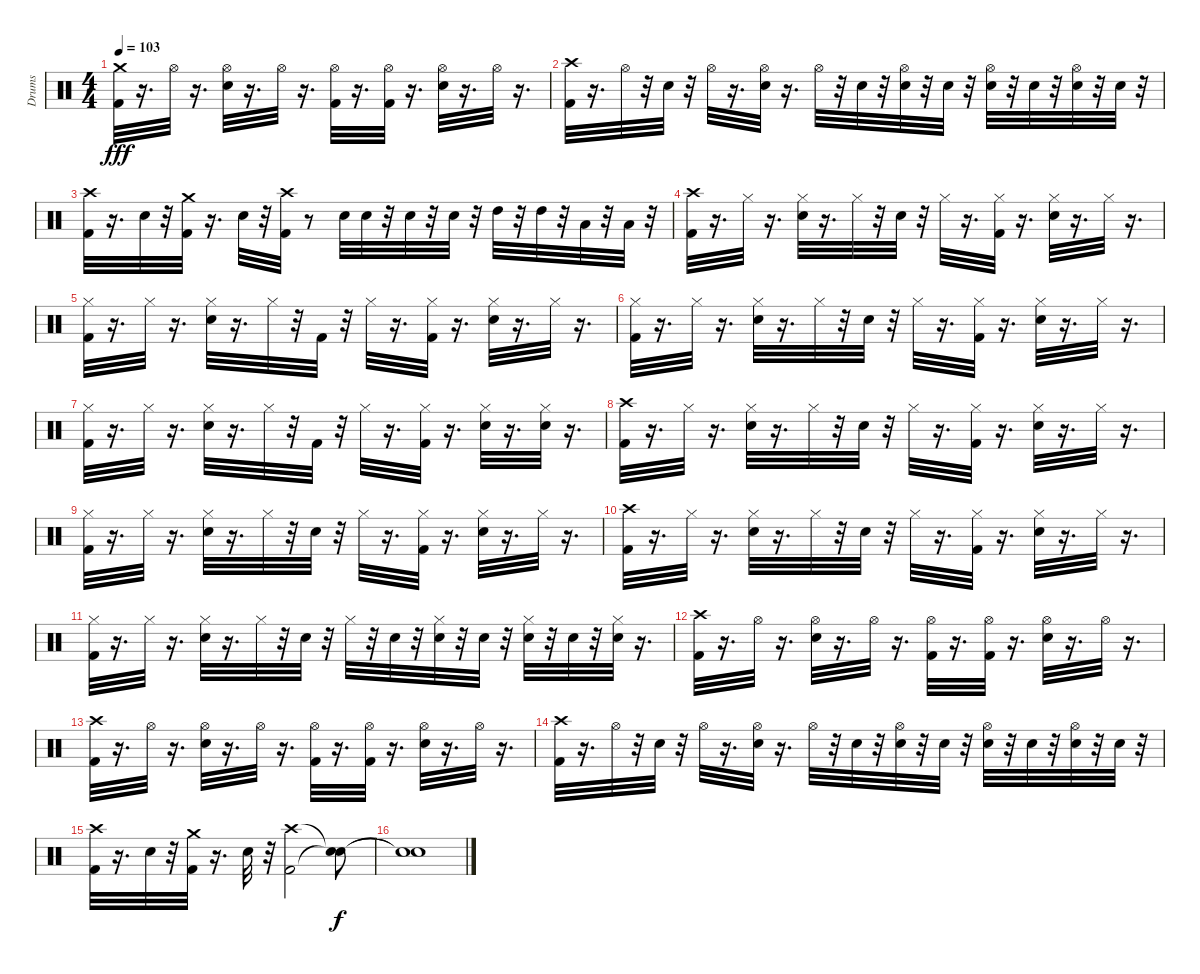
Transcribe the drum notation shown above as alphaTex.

\track ("Drums" "Drums") {instrument percussion}
\staff {score}
\articulation defaults
\ts (4 4)
\tempo 103
\clef neutral
\ks c
("Kick (hit) 2" "Crash medium (hit)").32{dy fff} r.16{d} "Hi-Hat (open)".32 r.16{d} ("Electric Snare (hit)" "Hi-Hat (open)").32 r.16{d} "Hi-Hat (open)".32 r.16{d} ("Kick (hit) 2" "Hi-Hat (open)").32 r.16{d} ("Kick (hit) 2" "Hi-Hat (open)").32 r.16{d} ("Electric Snare (hit)" "Hi-Hat (open)").32 r.16{d} "Hi-Hat (open)".32 r.16{d} |
("Kick (hit) 2" "Crash high (hit)").32 r.16{d} "Hi-Hat (open)".32 r.32 "Electric Snare (hit)".32 r.32 "Hi-Hat (open)".32 r.16{d} ("Electric Snare (hit)" "Hi-Hat (open)").32 r.16{d} "Hi-Hat (open)".32 r.32 "Electric Snare (hit)".32 r.32 ("Electric Snare (hit)" "Hi-Hat (open)").32 r.32 "Electric Snare (hit)".32 r.32 ("Electric Snare (hit)" "Hi-Hat (open)").32 r.32 "Electric Snare (hit)".32 r.32 ("Electric Snare (hit)" "Hi-Hat (open)").32 r.32 "Electric Snare (hit)".32 r.32 |
("Kick (hit) 2" "Crash high (hit)").32 r.16{d} "Electric Snare (hit)".32 r.32 ("Kick (hit) 2" "Crash medium (hit)").32 r.16{d} "Electric Snare (hit)".32 r.32 ("Kick (hit) 2" "Crash high (hit)").32 r.8 "Electric Snare (hit)".32 "Electric Snare (hit)".32 r.32 "Electric Snare (hit)".32 r.32 "Electric Snare (hit)".32 r.32 "High Tom (hit)".32 r.32 "High Tom (hit)".32 r.32 "Low Tom (hit)".32 r.32 "Low Floor Tom (hit)".32 r.32 |
("Crash high (hit)" "Kick (hit) 2").32 r.16{d} "Hi-Hat (closed)".32 r.16{d} ("Hi-Hat (closed)" "Electric Snare (hit)").32 r.16{d} "Hi-Hat (closed)".32 r.32 "Electric Snare (hit)".32 r.32 "Hi-Hat (closed)".32 r.16{d} ("Hi-Hat (closed)" "Kick (hit) 2").32 r.16{d} ("Hi-Hat (closed)" "Electric Snare (hit)").32 r.16{d} "Hi-Hat (closed)".32 r.16{d} |
("Hi-Hat (closed)" "Kick (hit) 2").32 r.16{d} "Hi-Hat (closed)".32 r.16{d} ("Hi-Hat (closed)" "Electric Snare (hit)").32 r.16{d} "Hi-Hat (closed)".32 r.32 "Kick (hit) 2".32 r.32 "Hi-Hat (closed)".32 r.16{d} ("Hi-Hat (closed)" "Kick (hit) 2").32 r.16{d} ("Hi-Hat (closed)" "Electric Snare (hit)").32 r.16{d} "Hi-Hat (closed)".32 r.16{d} |
("Hi-Hat (closed)" "Kick (hit) 2").32 r.16{d} "Hi-Hat (closed)".32 r.16{d} ("Hi-Hat (closed)" "Electric Snare (hit)").32 r.16{d} "Hi-Hat (closed)".32 r.32 "Electric Snare (hit)".32 r.32 "Hi-Hat (closed)".32 r.16{d} ("Hi-Hat (closed)" "Kick (hit) 2").32 r.16{d} ("Hi-Hat (closed)" "Electric Snare (hit)").32 r.16{d} "Hi-Hat (closed)".32 r.16{d} |
("Hi-Hat (closed)" "Kick (hit) 2").32 r.16{d} "Hi-Hat (closed)".32 r.16{d} ("Hi-Hat (closed)" "Electric Snare (hit)").32 r.16{d} "Hi-Hat (closed)".32 r.32 "Kick (hit) 2".32 r.32 "Hi-Hat (closed)".32 r.16{d} ("Hi-Hat (closed)" "Kick (hit) 2").32 r.16{d} ("Hi-Hat (closed)" "Electric Snare (hit)").32 r.16{d} ("Hi-Hat (closed)" "Electric Snare (hit)").32 r.16{d} |
("Crash high (hit)" "Kick (hit) 2").32 r.16{d} "Hi-Hat (closed)".32 r.16{d} ("Hi-Hat (closed)" "Electric Snare (hit)").32 r.16{d} "Hi-Hat (closed)".32 r.32 "Electric Snare (hit)".32 r.32 "Hi-Hat (closed)".32 r.16{d} ("Hi-Hat (closed)" "Kick (hit) 2").32 r.16{d} ("Hi-Hat (closed)" "Electric Snare (hit)").32 r.16{d} "Hi-Hat (closed)".32 r.16{d} |
("Hi-Hat (closed)" "Kick (hit) 2").32 r.16{d} "Hi-Hat (closed)".32 r.16{d} ("Hi-Hat (closed)" "Electric Snare (hit)").32 r.16{d} "Hi-Hat (closed)".32 r.32 "Electric Snare (hit)".32 r.32 "Hi-Hat (closed)".32 r.16{d} ("Hi-Hat (closed)" "Kick (hit) 2").32 r.16{d} ("Hi-Hat (closed)" "Electric Snare (hit)").32 r.16{d} "Hi-Hat (closed)".32 r.16{d} |
("Crash high (hit)" "Kick (hit) 2").32 r.16{d} "Hi-Hat (closed)".32 r.16{d} ("Hi-Hat (closed)" "Electric Snare (hit)").32 r.16{d} "Hi-Hat (closed)".32 r.32 "Electric Snare (hit)".32 r.32 "Hi-Hat (closed)".32 r.16{d} ("Hi-Hat (closed)" "Kick (hit) 2").32 r.16{d} ("Hi-Hat (closed)" "Electric Snare (hit)").32 r.16{d} "Hi-Hat (closed)".32 r.16{d} |
("Hi-Hat (closed)" "Kick (hit) 2").32 r.16{d} "Hi-Hat (closed)".32 r.16{d} ("Hi-Hat (closed)" "Electric Snare (hit)").32 r.16{d} "Hi-Hat (closed)".32 r.32 "Electric Snare (hit)".32 r.32 "Hi-Hat (closed)".32 r.32 "Electric Snare (hit)".32 r.32 ("Hi-Hat (closed)" "Electric Snare (hit)").32 r.32 "Electric Snare (hit)".32 r.32 ("Hi-Hat (closed)" "Electric Snare (hit)").32 r.32 "Electric Snare (hit)".32 r.32 ("Hi-Hat (closed)" "Electric Snare (hit)").32 r.16{d} |
("Kick (hit) 2" "Crash high (hit)").32 r.16{d} "Hi-Hat (open)".32 r.16{d} ("Electric Snare (hit)" "Hi-Hat (open)").32 r.16{d} "Hi-Hat (open)".32 r.16{d} ("Kick (hit) 2" "Hi-Hat (open)").32 r.16{d} ("Kick (hit) 2" "Hi-Hat (open)").32 r.16{d} ("Electric Snare (hit)" "Hi-Hat (open)").32 r.16{d} "Hi-Hat (open)".32 r.16{d} |
("Kick (hit) 2" "Crash high (hit)").32 r.16{d} "Hi-Hat (open)".32 r.16{d} ("Electric Snare (hit)" "Hi-Hat (open)").32 r.16{d} "Hi-Hat (open)".32 r.16{d} ("Kick (hit) 2" "Hi-Hat (open)").32 r.16{d} ("Kick (hit) 2" "Hi-Hat (open)").32 r.16{d} ("Electric Snare (hit)" "Hi-Hat (open)").32 r.16{d} "Hi-Hat (open)".32 r.16{d} |
("Kick (hit) 2" "Crash high (hit)").32 r.16{d} "Hi-Hat (open)".32 r.32 "Electric Snare (hit)".32 r.32 "Hi-Hat (open)".32 r.16{d} ("Electric Snare (hit)" "Hi-Hat (open)").32 r.16{d} "Hi-Hat (open)".32 r.32 "Electric Snare (hit)".32 r.32 ("Electric Snare (hit)" "Hi-Hat (open)").32 r.32 "Electric Snare (hit)".32 r.32 ("Electric Snare (hit)" "Hi-Hat (open)").32 r.32 "Electric Snare (hit)".32 r.32 ("Electric Snare (hit)" "Hi-Hat (open)").32 r.32 "Electric Snare (hit)".32 r.32 |
("Kick (hit) 2" "Crash high (hit)").32 r.16{d} "Electric Snare (hit)".32 r.32 ("Kick (hit) 2" "Crash medium (hit)").32 r.16{d} "Electric Snare (hit)".32 r.32 ("Kick (hit) 2" "Crash high (hit)").2 ("Snare (hit)"{t} "Snare (hit)"{t}).8{dy f} |
("Snare (hit)"{t} "Snare (hit)"{t}).1
